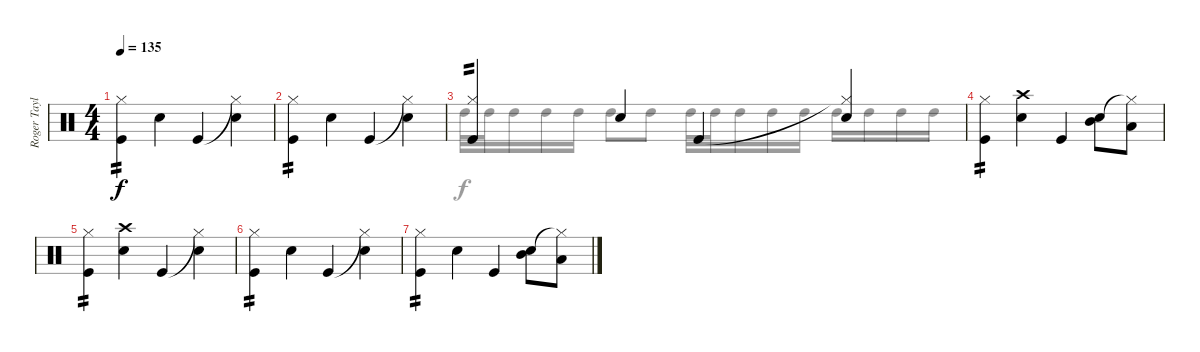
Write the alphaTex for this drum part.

\track ("Roger Taylor" "Roger Tayl") {instrument percussion}
\staff {score}
\articulation defaults
\voice
\ts (4 4)
\tempo 135
\clef neutral
\ks c
("Hi-Hat (closed)" "Kick (hit)").4{tp 2 dy f} "Snare (hit) 2".4 "Kick (hit)".4 ("Hi-Hat (closed)"{t} "Snare (hit) 2").4 |
("Hi-Hat (closed)" "Kick (hit)").4{tp 2} "Snare (hit) 2".4 "Kick (hit)".4 ("Hi-Hat (closed)"{t} "Snare (hit) 2").4 |
("Hi-Hat (closed)" "Kick (hit)").4{tp 2} "Snare (hit) 2".4 "Kick (hit)".4 ("Hi-Hat (closed)"{t} "Snare (hit) 2").4 |
("Hi-Hat (closed)" "Kick (hit)").4{tp 2} ("Crash high (hit)" "Snare (hit) 2").4 "Kick (hit)".4 ("Mid Tom (hit)" "Snare (hit) 2").8 ("Hi-Hat (closed)"{t} "Low Tom (hit)").8 |
("Hi-Hat (closed)" "Kick (hit)").4{tp 2} ("Crash high (hit)" "Snare (hit) 2").4 "Kick (hit)".4 ("Hi-Hat (closed)"{t} "Snare (hit) 2").4 |
("Hi-Hat (closed)" "Kick (hit)").4{tp 2} "Snare (hit) 2".4 "Kick (hit)".4 ("Hi-Hat (closed)"{t} "Snare (hit) 2").4 |
("Hi-Hat (closed)" "Kick (hit)").4{tp 2} "Snare (hit) 2".4 "Kick (hit)".4 ("Mid Tom (hit)" "Snare (hit) 2").8 ("Hi-Hat (closed)"{t} "Low Tom (hit)").8
\voice
\clef neutral
\ottava regular
\simile none
\ks c
|
|
"High Tom (hit)".32 "High Tom (hit)".32 "High Tom (hit)".16 "High Tom (hit)".16 "High Tom (hit)".16 "High Tom (hit)".8 "High Tom (hit)".8 "High Tom (hit)".32 "High Tom (hit)".32 "High Tom (hit)".16 "High Tom (hit)".16 "High Tom (hit)".16 "High Tom (hit)".16 "High Tom (hit)".16 "High Tom (hit)".16 "High Tom (hit)".16 |
|
|
|
